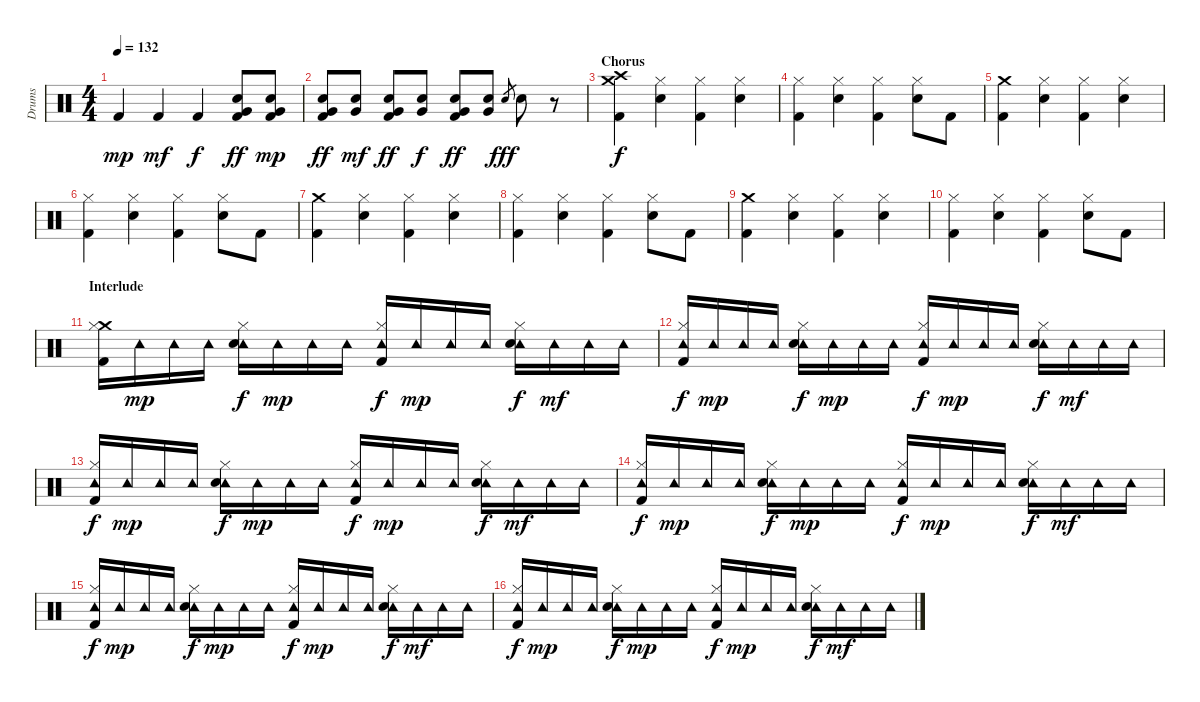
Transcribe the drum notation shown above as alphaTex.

\track ("Drums" "Drums") {instrument percussion}
\staff {score}
\articulation defaults
\ts (4 4)
\tempo 132
\clef neutral
\ks c "Kick (hit) 2".4{dy mp} "Kick (hit) 2".4{dy mf} "Kick (hit) 2".4{dy f}
("Snare (hit) 2" "Very Low Tom (hit)" "Kick (hit) 2").8{dy ff} ("Snare (hit) 2" "Very Low Tom (hit)" "Kick (hit) 2").8{dy mp} |
("Snare (hit) 2" "Very Low Tom (hit)" "Kick (hit) 2").8{dy ff} ("Snare (hit) 2" "Very Low Tom (hit)").8{dy mf} ("Snare (hit) 2" "Very Low Tom (hit)" "Kick (hit) 2").8{dy ff} ("Snare (hit) 2" "Very Low Tom (hit)").8{dy f} ("Snare (hit) 2" "Very Low Tom (hit)" "Kick (hit) 2").8{dy ff} ("Snare (hit) 2" "Very Low Tom (hit)").8 "Snare (hit) 2".8{gr dy fff} "Snare (hit) 2".8 r.8 |
\section ("" "Chorus")
("Crash medium (hit)" "Crash high (hit)" "Kick (hit) 2").4{dy f} ("Hi-Hat (closed)" "Electric Snare (hit)").4 ("Hi-Hat (closed)" "Kick (hit) 2").4 ("Hi-Hat (closed)" "Electric Snare (hit)").4 |
("Hi-Hat (closed)" "Kick (hit) 2").4 ("Hi-Hat (closed)" "Electric Snare (hit)").4 ("Hi-Hat (closed)" "Kick (hit) 2").4 ("Hi-Hat (closed)" "Electric Snare (hit)").8 "Kick (hit) 2".8 |
("Crash medium (hit)" "Kick (hit) 2").4 ("Hi-Hat (closed)" "Electric Snare (hit)").4 ("Hi-Hat (closed)" "Kick (hit) 2").4 ("Hi-Hat (closed)" "Electric Snare (hit)").4 |
("Hi-Hat (closed)" "Kick (hit) 2").4 ("Hi-Hat (closed)" "Electric Snare (hit)").4 ("Hi-Hat (closed)" "Kick (hit) 2").4 ("Hi-Hat (closed)" "Electric Snare (hit)").8 "Kick (hit) 2".8 |
("Crash medium (hit)" "Kick (hit) 2").4 ("Hi-Hat (closed)" "Electric Snare (hit)").4 ("Hi-Hat (closed)" "Kick (hit) 2").4 ("Hi-Hat (closed)" "Electric Snare (hit)").4 |
("Hi-Hat (closed)" "Kick (hit) 2").4 ("Hi-Hat (closed)" "Electric Snare (hit)").4 ("Hi-Hat (closed)" "Kick (hit) 2").4 ("Hi-Hat (closed)" "Electric Snare (hit)").8 "Kick (hit) 2".8 |
("Crash medium (hit)" "Kick (hit) 2").4 ("Hi-Hat (closed)" "Electric Snare (hit)").4 ("Hi-Hat (closed)" "Kick (hit) 2").4 ("Hi-Hat (closed)" "Electric Snare (hit)").4 |
("Hi-Hat (closed)" "Kick (hit) 2").4 ("Hi-Hat (closed)" "Electric Snare (hit)").4 ("Hi-Hat (closed)" "Kick (hit) 2").4 ("Hi-Hat (closed)" "Electric Snare (hit)").8 "Kick (hit) 2".8 |
\section ("" "Interlude")
("Crash medium (hit)" "Hi-Hat (closed)" "Kick (hit) 2").16 "Tambourine (hit)".16{dy mp} "Tambourine (hit)".16 "Tambourine (hit)".16 ("Tambourine (hit)" "Hi-Hat (closed)" "Snare (hit) 2").16{dy f} "Tambourine (hit)".16{dy mp} "Tambourine (hit)".16 "Tambourine (hit)".16 ("Tambourine (hit)" "Hi-Hat (closed)" "Kick (hit) 2").16{dy f} "Tambourine (hit)".16{dy mp} "Tambourine (hit)".16 "Tambourine (hit)".16 ("Tambourine (hit)" "Hi-Hat (closed)" "Snare (hit) 2").16{dy f} "Tambourine (hit)".16{dy mf} "Tambourine (hit)".16 "Tambourine (hit)".16 |
("Tambourine (hit)" "Hi-Hat (closed)" "Kick (hit) 2").16{dy f} "Tambourine (hit)".16{dy mp} "Tambourine (hit)".16 "Tambourine (hit)".16 ("Tambourine (hit)" "Hi-Hat (closed)" "Snare (hit) 2").16{dy f} "Tambourine (hit)".16{dy mp} "Tambourine (hit)".16 "Tambourine (hit)".16 ("Tambourine (hit)" "Hi-Hat (closed)" "Kick (hit) 2").16{dy f} "Tambourine (hit)".16{dy mp} "Tambourine (hit)".16 "Tambourine (hit)".16 ("Tambourine (hit)" "Hi-Hat (closed)" "Snare (hit) 2").16{dy f} "Tambourine (hit)".16{dy mf} "Tambourine (hit)".16 "Tambourine (hit)".16 |
("Tambourine (hit)" "Hi-Hat (closed)" "Kick (hit) 2").16{dy f} "Tambourine (hit)".16{dy mp} "Tambourine (hit)".16 "Tambourine (hit)".16 ("Tambourine (hit)" "Hi-Hat (closed)" "Snare (hit) 2").16{dy f} "Tambourine (hit)".16{dy mp} "Tambourine (hit)".16 "Tambourine (hit)".16 ("Tambourine (hit)" "Hi-Hat (closed)" "Kick (hit) 2").16{dy f} "Tambourine (hit)".16{dy mp} "Tambourine (hit)".16 "Tambourine (hit)".16 ("Tambourine (hit)" "Hi-Hat (closed)" "Snare (hit) 2").16{dy f} "Tambourine (hit)".16{dy mf} "Tambourine (hit)".16 "Tambourine (hit)".16 |
("Tambourine (hit)" "Hi-Hat (closed)" "Kick (hit) 2").16{dy f} "Tambourine (hit)".16{dy mp} "Tambourine (hit)".16 "Tambourine (hit)".16 ("Tambourine (hit)" "Hi-Hat (closed)" "Snare (hit) 2").16{dy f} "Tambourine (hit)".16{dy mp} "Tambourine (hit)".16 "Tambourine (hit)".16 ("Tambourine (hit)" "Hi-Hat (closed)" "Kick (hit) 2").16{dy f} "Tambourine (hit)".16{dy mp} "Tambourine (hit)".16 "Tambourine (hit)".16 ("Tambourine (hit)" "Hi-Hat (closed)" "Snare (hit) 2").16{dy f} "Tambourine (hit)".16{dy mf} "Tambourine (hit)".16 "Tambourine (hit)".16 |
("Tambourine (hit)" "Hi-Hat (closed)" "Kick (hit) 2").16{dy f} "Tambourine (hit)".16{dy mp} "Tambourine (hit)".16 "Tambourine (hit)".16 ("Tambourine (hit)" "Hi-Hat (closed)" "Snare (hit) 2").16{dy f} "Tambourine (hit)".16{dy mp} "Tambourine (hit)".16 "Tambourine (hit)".16 ("Tambourine (hit)" "Hi-Hat (closed)" "Kick (hit) 2").16{dy f} "Tambourine (hit)".16{dy mp} "Tambourine (hit)".16 "Tambourine (hit)".16 ("Tambourine (hit)" "Hi-Hat (closed)" "Snare (hit) 2").16{dy f} "Tambourine (hit)".16{dy mf} "Tambourine (hit)".16 "Tambourine (hit)".16 |
("Tambourine (hit)" "Hi-Hat (closed)" "Kick (hit) 2").16{dy f} "Tambourine (hit)".16{dy mp} "Tambourine (hit)".16 "Tambourine (hit)".16 ("Tambourine (hit)" "Hi-Hat (closed)" "Snare (hit) 2").16{dy f} "Tambourine (hit)".16{dy mp} "Tambourine (hit)".16 "Tambourine (hit)".16 ("Tambourine (hit)" "Hi-Hat (closed)" "Kick (hit) 2").16{dy f} "Tambourine (hit)".16{dy mp} "Tambourine (hit)".16 "Tambourine (hit)".16 ("Tambourine (hit)" "Hi-Hat (closed)" "Snare (hit) 2").16{dy f} "Tambourine (hit)".16{dy mf} "Tambourine (hit)".16 "Tambourine (hit)".16
